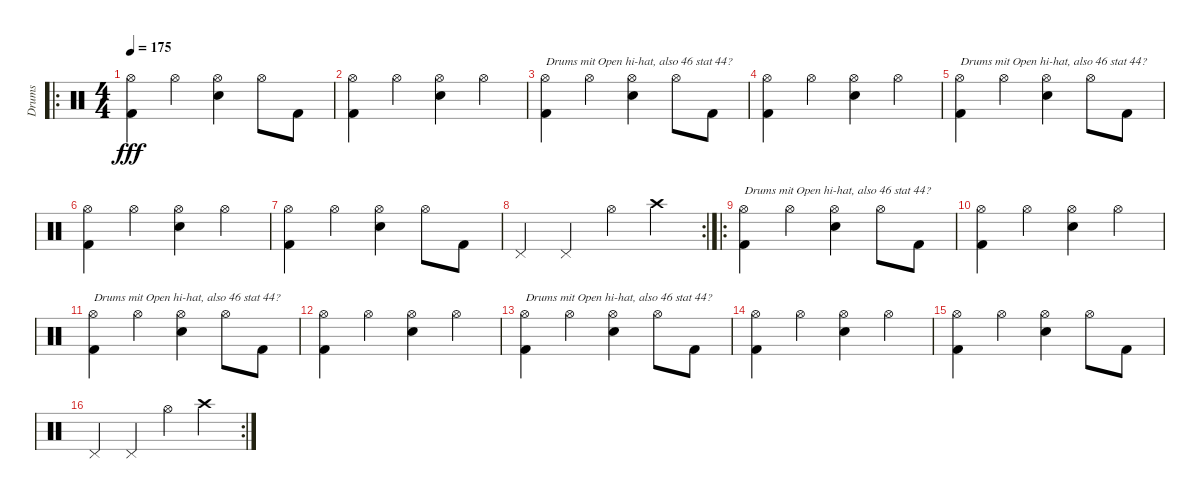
\track ("Drums" "Drums") {instrument percussion}
\staff {score}
\articulation defaults
\ro
\ts (4 4)
\tempo 175
\clef neutral
\ks c
("Hi-Hat (open)" "Kick (hit) 2").4{dy fff} "Hi-Hat (open)".4 ("Hi-Hat (open)" "Snare (hit) 2").4 "Hi-Hat (open)".8 "Kick (hit) 2".8 |
("Hi-Hat (open)" "Kick (hit) 2").4 "Hi-Hat (open)".4 ("Hi-Hat (open)" "Snare (hit) 2").4 "Hi-Hat (open)".4 |
("Hi-Hat (open)" "Kick (hit) 2").4{txt "Drums mit Open hi-hat, also 46 stat 44?"} "Hi-Hat (open)".4 ("Hi-Hat (open)" "Snare (hit) 2").4 "Hi-Hat (open)".8 "Kick (hit) 2".8 |
("Hi-Hat (open)" "Kick (hit) 2").4 "Hi-Hat (open)".4 ("Hi-Hat (open)" "Snare (hit) 2").4 "Hi-Hat (open)".4 |
("Hi-Hat (open)" "Kick (hit) 2").4{txt "Drums mit Open hi-hat, also 46 stat 44?"} "Hi-Hat (open)".4 ("Hi-Hat (open)" "Snare (hit) 2").4 "Hi-Hat (open)".8 "Kick (hit) 2".8 |
("Hi-Hat (open)" "Kick (hit) 2").4 "Hi-Hat (open)".4 ("Hi-Hat (open)" "Snare (hit) 2").4 "Hi-Hat (open)".4 |
("Hi-Hat (open)" "Kick (hit) 2").4 "Hi-Hat (open)".4 ("Hi-Hat (open)" "Snare (hit) 2").4 "Hi-Hat (open)".8 "Kick (hit) 2".8 |
\rc 2 "Pedal Hi-Hat (hit)".4 "Pedal Hi-Hat (hit)".4 "Hi-Hat (open)".4 "Crash high (hit)".4
|
\ro
("Hi-Hat (open)" "Kick (hit) 2").4{txt "Drums mit Open hi-hat, also 46 stat 44?"} "Hi-Hat (open)".4 ("Hi-Hat (open)" "Snare (hit) 2").4 "Hi-Hat (open)".8 "Kick (hit) 2".8 |
("Hi-Hat (open)" "Kick (hit) 2").4 "Hi-Hat (open)".4 ("Hi-Hat (open)" "Snare (hit) 2").4 "Hi-Hat (open)".4 |
("Hi-Hat (open)" "Kick (hit) 2").4{txt "Drums mit Open hi-hat, also 46 stat 44?"} "Hi-Hat (open)".4 ("Hi-Hat (open)" "Snare (hit) 2").4 "Hi-Hat (open)".8 "Kick (hit) 2".8 |
("Hi-Hat (open)" "Kick (hit) 2").4 "Hi-Hat (open)".4 ("Hi-Hat (open)" "Snare (hit) 2").4 "Hi-Hat (open)".4 |
("Hi-Hat (open)" "Kick (hit) 2").4{txt "Drums mit Open hi-hat, also 46 stat 44?"} "Hi-Hat (open)".4 ("Hi-Hat (open)" "Snare (hit) 2").4 "Hi-Hat (open)".8 "Kick (hit) 2".8 |
("Hi-Hat (open)" "Kick (hit) 2").4 "Hi-Hat (open)".4 ("Hi-Hat (open)" "Snare (hit) 2").4 "Hi-Hat (open)".4 |
("Hi-Hat (open)" "Kick (hit) 2").4 "Hi-Hat (open)".4 ("Hi-Hat (open)" "Snare (hit) 2").4 "Hi-Hat (open)".8 "Kick (hit) 2".8 |
\rc 2 "Pedal Hi-Hat (hit)".4 "Pedal Hi-Hat (hit)".4 "Hi-Hat (open)".4 "Crash high (hit)".4
